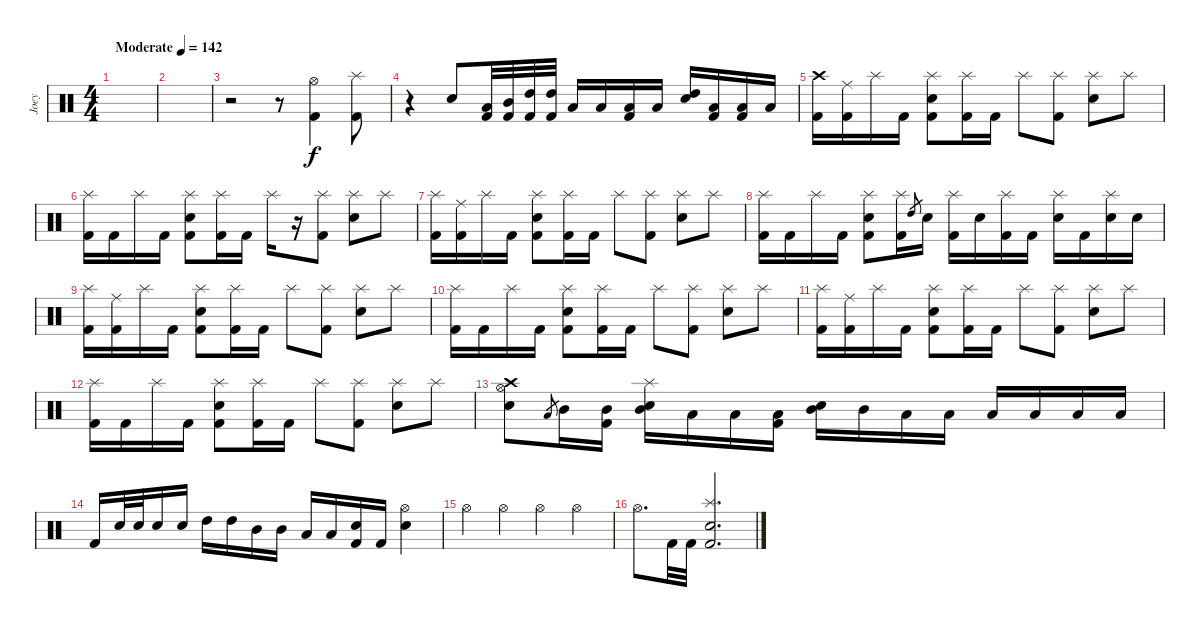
\track ("Joey" "Joey") {instrument percussion}
\staff {score}
\articulation defaults
\ts (4 4)
\tempo (142 "Moderate")
\clef neutral
\ks c
|
|
r.2 r.8 ("Hi-Hat (open)" "Kick (hit) 2").4 ("Splash (hit)" "Kick (hit) 2").8 |
r.4 "Snare (hit) 2".8 ("Low Tom (hit)" "Kick (hit) 2").32 ("Mid Tom (hit)" "Kick (hit) 2").32 ("High Tom (hit)" "Kick (hit) 2").32 ("High Tom (hit)" "Kick (hit) 2").32 "Low Tom (hit)".16 "Low Tom (hit)".16 ("Low Tom (hit)" "Kick (hit) 2").16 "Low Tom (hit)".16 ("High Tom (hit)" "Snare (hit) 2").16 ("Low Tom (hit)" "Kick (hit) 2").16 ("Low Tom (hit)" "Kick (hit) 2").16 "Low Tom (hit)".16 |
("Crash high (hit)" "Kick (hit) 2").16 ("Ride (middle)" "Kick (hit) 2").16 "Splash (hit)".16 "Kick (hit) 2".16 ("Splash (hit)" "Snare (hit) 2" "Kick (hit) 2").8 ("Splash (hit)" "Kick (hit) 2").16 "Kick (hit) 2".16 "Splash (hit)".8 ("Splash (hit)" "Kick (hit) 2").8 ("Splash (hit)" "Snare (hit) 2").8 "Splash (hit)".8 |
("Splash (hit)" "Kick (hit) 2").16 "Kick (hit) 2".16 "Splash (hit)".16 "Kick (hit) 2".16 ("Splash (hit)" "Snare (hit) 2" "Kick (hit) 2").8 ("Splash (hit)" "Kick (hit) 2").16 "Kick (hit) 2".16 "Splash (hit)".16 r.16 ("Splash (hit)" "Kick (hit) 2").8 ("Splash (hit)" "Snare (hit) 2").8 "Splash (hit)".8 |
("Splash (hit)" "Kick (hit) 2").16 ("Ride (middle)" "Kick (hit) 2").16 "Splash (hit)".16 "Kick (hit) 2".16 ("Splash (hit)" "Snare (hit) 2" "Kick (hit) 2").8 ("Splash (hit)" "Kick (hit) 2").16 "Kick (hit) 2".16 "Splash (hit)".8 ("Splash (hit)" "Kick (hit) 2").8 ("Splash (hit)" "Snare (hit) 2").8 "Splash (hit)".8 |
("Splash (hit)" "Kick (hit) 2").16 "Kick (hit) 2".16 "Splash (hit)".16 "Kick (hit) 2".16 ("Splash (hit)" "Snare (hit) 2" "Kick (hit) 2").8 ("Splash (hit)" "Kick (hit) 2").16 "High Tom (hit)".8{gr} "Snare (hit) 2".16 ("Splash (hit)" "Kick (hit) 2").16 "Snare (hit) 2".16 ("Splash (hit)" "Kick (hit) 2").16 "Kick (hit) 2".16 ("Splash (hit)" "Snare (hit) 2").16 "Kick (hit) 2".16 ("Splash (hit)" "Snare (hit) 2").16 "Snare (hit) 2".16 |
("Splash (hit)" "Kick (hit) 2").16 ("Ride (middle)" "Kick (hit) 2").16 "Splash (hit)".16 "Kick (hit) 2".16 ("Splash (hit)" "Snare (hit) 2" "Kick (hit) 2").8 ("Splash (hit)" "Kick (hit) 2").16 "Kick (hit) 2".16 "Splash (hit)".8 ("Splash (hit)" "Kick (hit) 2").8 ("Splash (hit)" "Snare (hit) 2").8 "Splash (hit)".8 |
("Splash (hit)" "Kick (hit) 2").16 "Kick (hit) 2".16 "Splash (hit)".16 "Kick (hit) 2".16 ("Splash (hit)" "Snare (hit) 2" "Kick (hit) 2").8 ("Splash (hit)" "Kick (hit) 2").16 "Kick (hit) 2".16 "Splash (hit)".8 ("Splash (hit)" "Kick (hit) 2").8 ("Splash (hit)" "Snare (hit) 2").8 "Splash (hit)".8 |
("Splash (hit)" "Kick (hit) 2").16 ("Ride (middle)" "Kick (hit) 2").16 "Splash (hit)".16 "Kick (hit) 2".16 ("Splash (hit)" "Snare (hit) 2" "Kick (hit) 2").8 ("Splash (hit)" "Kick (hit) 2").16 "Kick (hit) 2".16 "Splash (hit)".8 ("Splash (hit)" "Kick (hit) 2").8 ("Splash (hit)" "Snare (hit) 2").8 "Splash (hit)".8 |
("Splash (hit)" "Kick (hit) 2").16 "Kick (hit) 2".16 "Splash (hit)".16 "Kick (hit) 2".16 ("Splash (hit)" "Snare (hit) 2" "Kick (hit) 2").8 ("Splash (hit)" "Kick (hit) 2").16 "Kick (hit) 2".16 "Splash (hit)".8 ("Splash (hit)" "Kick (hit) 2").8 ("Splash (hit)" "Snare (hit) 2").8 "Splash (hit)".8 |
("Hi-Hat (open)" "Crash high (hit)" "Snare (hit) 2").8 "Low Tom (hit)".8{gr} "Mid Tom (hit)".16 ("Mid Tom (hit)" "Kick (hit) 2").16 ("Splash (hit)" "Mid Tom (hit)" "Snare (hit) 2").16 "Low Tom (hit)".16 "Low Tom (hit)".16 ("Low Tom (hit)" "Kick (hit) 2").16 ("Mid Tom (hit)" "Snare (hit) 2").16 "Mid Tom (hit)".16 "Low Tom (hit)".16 "Low Tom (hit)".16 "Low Tom (hit)".16 "Low Tom (hit)".16 "Low Tom (hit)".16 "Low Tom (hit)".16 |
"Kick (hit) 2".16 "Snare (hit) 2".32 "Snare (hit) 2".32 "Snare (hit) 2".16 "Snare (hit) 2".16 "High Tom (hit)".16 "High Tom (hit)".16 "Mid Tom (hit)".16 "Mid Tom (hit)".16 "Low Tom (hit)".16 "Low Tom (hit)".16 ("Snare (hit) 2" "Kick (hit) 2").16 "Kick (hit) 2".16 ("Hi-Hat (open)" "Snare (hit) 2").4 |
"Hi-Hat (open)".4 "Hi-Hat (open)".4 "Hi-Hat (open)".4 "Hi-Hat (open)".4 |
"Hi-Hat (open)".8{d} "Kick (hit) 2".32 "Kick (hit) 2".32 ("Splash (hit)" "Snare (hit) 2" "Kick (hit) 2").2{d}
